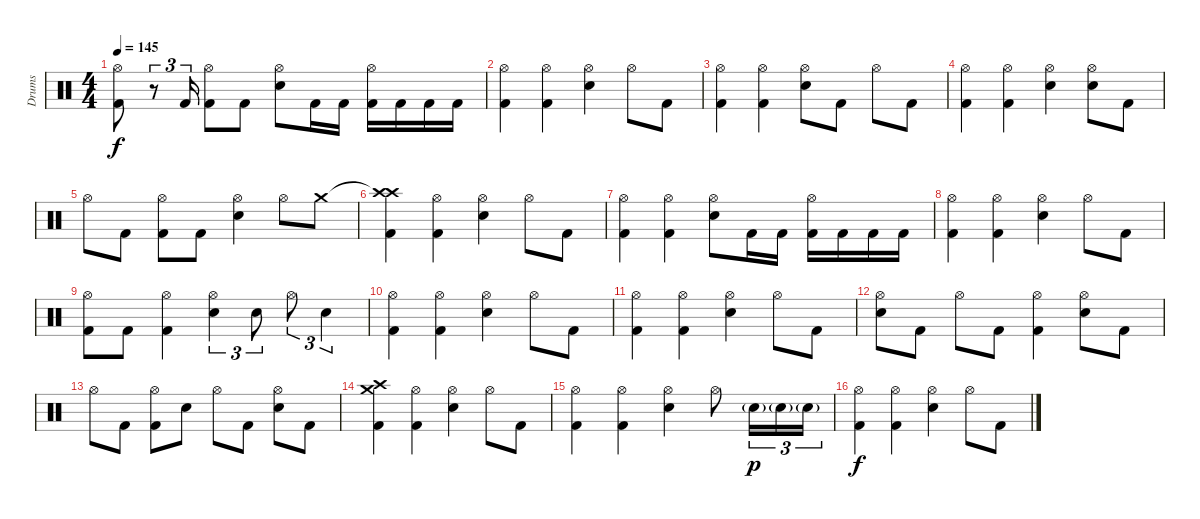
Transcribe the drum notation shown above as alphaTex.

\track ("Drums" "Drums") {instrument percussion}
\staff {score}
\articulation defaults
\ts (4 4)
\tempo 145
\clef neutral
\ks c
("Hi-Hat (open)" "Kick (hit) 2").8{dy f} r.8{tu (3 2)} "Kick (hit) 2".16{tu (3 2)} ("Hi-Hat (open)" "Kick (hit) 2").8 "Kick (hit) 2".8 ("Hi-Hat (open)" "Electric Snare (hit)").8 "Kick (hit) 2".16 "Kick (hit) 2".16 ("Hi-Hat (open)" "Kick (hit) 2").16 "Kick (hit) 2".16 "Kick (hit) 2".16 "Kick (hit) 2".16 |
("Hi-Hat (open)" "Kick (hit) 2").4 ("Hi-Hat (open)" "Kick (hit) 2").4 ("Hi-Hat (open)" "Electric Snare (hit)").4 "Hi-Hat (open)".8 "Kick (hit) 2".8 |
("Hi-Hat (open)" "Kick (hit) 2").4 ("Hi-Hat (open)" "Kick (hit) 2").4 ("Hi-Hat (open)" "Electric Snare (hit)").8 "Kick (hit) 2".8 "Hi-Hat (open)".8 "Kick (hit) 2".8 |
("Hi-Hat (open)" "Kick (hit) 2").4 ("Hi-Hat (open)" "Kick (hit) 2").4 ("Hi-Hat (open)" "Electric Snare (hit)").4 ("Hi-Hat (open)" "Electric Snare (hit)").8 "Kick (hit) 2".8 |
"Hi-Hat (open)".8 "Kick (hit) 2".8 ("Hi-Hat (open)" "Kick (hit) 2").8 "Kick (hit) 2".8 ("Hi-Hat (open)" "Electric Snare (hit)").4 "Hi-Hat (open)".8 "Crash medium (hit)".8 |
("Crash high (hit)"{t} "Crash high (hit)" "Kick (hit) 2").4 ("Hi-Hat (open)" "Kick (hit) 2").4 ("Hi-Hat (open)" "Electric Snare (hit)").4 "Hi-Hat (open)".8 "Kick (hit) 2".8 |
("Hi-Hat (open)" "Kick (hit) 2").4 ("Hi-Hat (open)" "Kick (hit) 2").4 ("Hi-Hat (open)" "Electric Snare (hit)").8 "Kick (hit) 2".16 "Kick (hit) 2".16 ("Hi-Hat (open)" "Kick (hit) 2").16 "Kick (hit) 2".16 "Kick (hit) 2".16 "Kick (hit) 2".16 |
("Hi-Hat (open)" "Kick (hit) 2").4 ("Hi-Hat (open)" "Kick (hit) 2").4 ("Hi-Hat (open)" "Electric Snare (hit)").4 "Hi-Hat (open)".8 "Kick (hit) 2".8 |
("Hi-Hat (open)" "Kick (hit) 2").8 "Kick (hit) 2".8 ("Hi-Hat (open)" "Kick (hit) 2").4 ("Hi-Hat (open)" "Electric Snare (hit)").4{tu (3 2)} "Electric Snare (hit)".8{tu (3 2)} "Hi-Hat (open)".8{tu (3 2)} "Electric Snare (hit)".4{tu (3 2)} |
("Hi-Hat (open)" "Kick (hit) 2").4 ("Hi-Hat (open)" "Kick (hit) 2").4 ("Hi-Hat (open)" "Electric Snare (hit)").4 "Hi-Hat (open)".8 "Kick (hit) 2".8 |
("Hi-Hat (open)" "Kick (hit) 2").4 ("Hi-Hat (open)" "Kick (hit) 2").4 ("Hi-Hat (open)" "Electric Snare (hit)").4 "Hi-Hat (open)".8 "Kick (hit) 2".8 |
("Hi-Hat (open)" "Electric Snare (hit)").8 "Kick (hit) 2".8 "Hi-Hat (open)".8 "Kick (hit) 2".8 ("Hi-Hat (open)" "Kick (hit) 2").4 ("Hi-Hat (open)" "Electric Snare (hit)").8 "Kick (hit) 2".8 |
"Hi-Hat (open)".8 "Kick (hit) 2".8 ("Hi-Hat (open)" "Kick (hit) 2").8 "Electric Snare (hit)".8 "Hi-Hat (open)".8 "Kick (hit) 2".8 ("Hi-Hat (open)" "Electric Snare (hit)").8 "Kick (hit) 2".8 |
("Crash medium (hit)" "Crash high (hit)" "Kick (hit) 2").4 ("Hi-Hat (open)" "Kick (hit) 2").4 ("Hi-Hat (open)" "Electric Snare (hit)").4 "Hi-Hat (open)".8 "Kick (hit) 2".8 |
("Hi-Hat (open)" "Kick (hit) 2").4 ("Hi-Hat (open)" "Kick (hit) 2").4 ("Hi-Hat (open)" "Electric Snare (hit)").4 "Hi-Hat (open)".8 "Electric Snare (hit)"{g}.16{tu (3 2) dy p} "Electric Snare (hit)"{g}.16{tu (3 2)} "Electric Snare (hit)"{g}.16{tu (3 2)} |
("Hi-Hat (open)" "Kick (hit) 2").4{dy f} ("Hi-Hat (open)" "Kick (hit) 2").4 ("Hi-Hat (open)" "Electric Snare (hit)").4 "Hi-Hat (open)".8 "Kick (hit) 2".8
